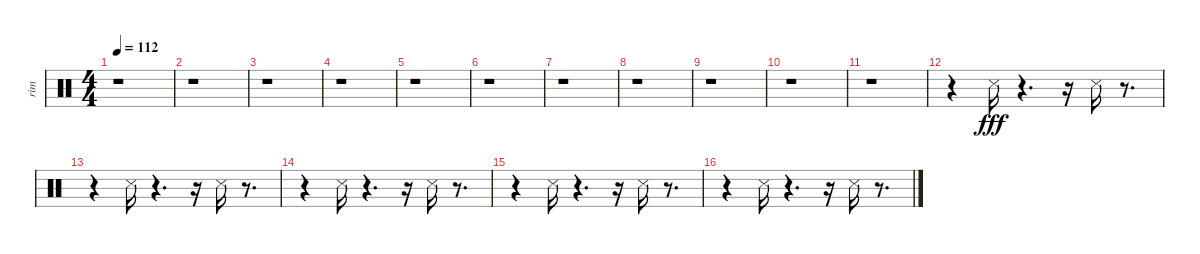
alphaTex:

\track ("rim" "rim") {instrument percussion}
\staff {score}
\articulation defaults
\ts (4 4)
\tempo 112
\clef neutral
\ks c
r.1{dy fff} |
r.1 |
r.1 |
r.1 |
r.1 |
r.1 |
r.1 |
r.1 |
r.1 |
r.1 |
r.1 |
r.4 "Snare (side stick) 3".16 r.4{d} r.16 "Snare (side stick) 3".16 r.8{d} |
r.4 "Snare (side stick) 3".16 r.4{d} r.16 "Snare (side stick) 3".16 r.8{d} |
r.4 "Snare (side stick) 3".16 r.4{d} r.16 "Snare (side stick) 3".16 r.8{d} |
r.4 "Snare (side stick) 3".16 r.4{d} r.16 "Snare (side stick) 3".16 r.8{d} |
r.4 "Snare (side stick) 3".16 r.4{d} r.16 "Snare (side stick) 3".16 r.8{d}
